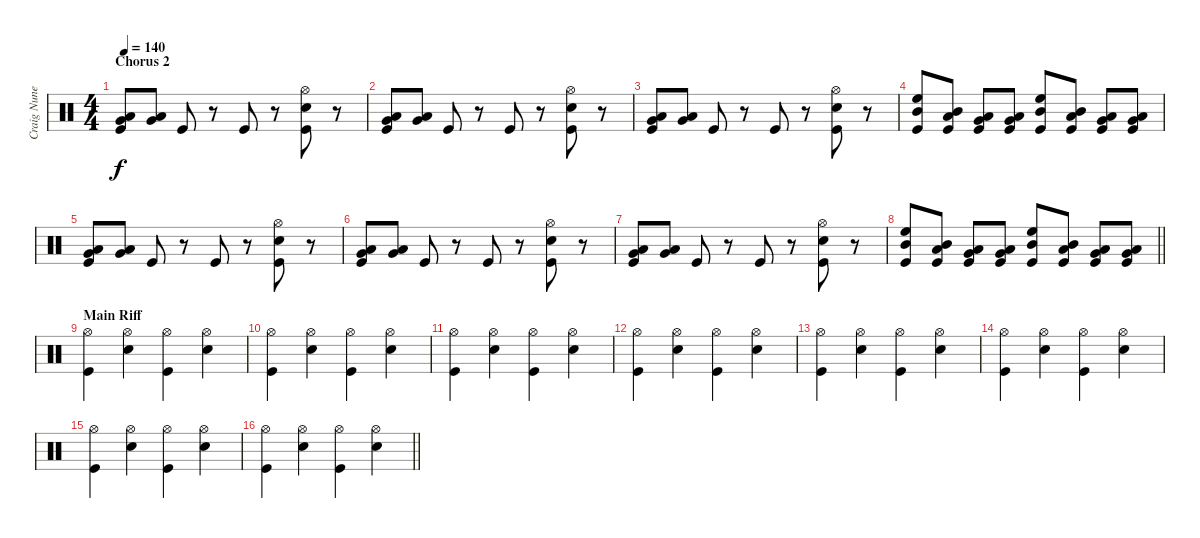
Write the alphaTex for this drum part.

\track ("Craig Nunenmacher" "Craig Nune") {instrument percussion}
\staff {score}
\articulation defaults
\ts (4 4)
\section ("" "Chorus 2")
\tempo 140
\clef neutral
\ks c
("Low Floor Tom (hit)" "Very Low Tom (hit)" "Kick (hit)").8{dy f} ("Low Floor Tom (hit)" "Very Low Tom (hit)").8 "Kick (hit)".8 r.8 "Kick (hit)".8 r.8 ("Snare (hit) 2" "Hi-Hat (open)" "Kick (hit)").8 r.8 |
("Low Floor Tom (hit)" "Very Low Tom (hit)" "Kick (hit)").8 ("Low Floor Tom (hit)" "Very Low Tom (hit)").8 "Kick (hit)".8 r.8 "Kick (hit)".8 r.8 ("Snare (hit) 2" "Hi-Hat (open)" "Kick (hit)").8 r.8 |
("Low Floor Tom (hit)" "Very Low Tom (hit)" "Kick (hit)").8 ("Low Floor Tom (hit)" "Very Low Tom (hit)").8 "Kick (hit)".8 r.8 "Kick (hit)".8 r.8 ("Snare (hit) 2" "Hi-Hat (open)" "Kick (hit)").8 r.8 |
("High Floor Tom (hit)" "Mid Tom (hit)" "Kick (hit)").8 ("Mid Tom (hit)" "Low Tom (hit)" "Kick (hit)").8 ("Low Tom (hit)" "Very Low Tom (hit)" "Kick (hit)").8 ("Very Low Tom (hit)" "Low Floor Tom (hit)" "Kick (hit)").8 ("High Floor Tom (hit)" "Mid Tom (hit)" "Kick (hit)").8 ("Mid Tom (hit)" "Low Tom (hit)" "Kick (hit)").8 ("Low Tom (hit)" "Very Low Tom (hit)" "Kick (hit)").8 ("Very Low Tom (hit)" "Low Floor Tom (hit)" "Kick (hit)").8 |
("Low Floor Tom (hit)" "Very Low Tom (hit)" "Kick (hit)").8 ("Low Floor Tom (hit)" "Very Low Tom (hit)").8 "Kick (hit)".8 r.8 "Kick (hit)".8 r.8 ("Snare (hit) 2" "Hi-Hat (open)" "Kick (hit)").8 r.8 |
("Low Floor Tom (hit)" "Very Low Tom (hit)" "Kick (hit)").8 ("Low Floor Tom (hit)" "Very Low Tom (hit)").8 "Kick (hit)".8 r.8 "Kick (hit)".8 r.8 ("Snare (hit) 2" "Hi-Hat (open)" "Kick (hit)").8 r.8 |
("Low Floor Tom (hit)" "Very Low Tom (hit)" "Kick (hit)").8 ("Low Floor Tom (hit)" "Very Low Tom (hit)").8 "Kick (hit)".8 r.8 "Kick (hit)".8 r.8 ("Snare (hit) 2" "Hi-Hat (open)" "Kick (hit)").8 r.8 |
\barLineRight lightlight
("High Floor Tom (hit)" "Mid Tom (hit)" "Kick (hit)").8 ("Mid Tom (hit)" "Low Tom (hit)" "Kick (hit)").8 ("Low Tom (hit)" "Very Low Tom (hit)" "Kick (hit)").8 ("Very Low Tom (hit)" "Low Floor Tom (hit)" "Kick (hit)").8 ("High Floor Tom (hit)" "Mid Tom (hit)" "Kick (hit)").8 ("Mid Tom (hit)" "Low Tom (hit)" "Kick (hit)").8 ("Low Tom (hit)" "Very Low Tom (hit)" "Kick (hit)").8 ("Very Low Tom (hit)" "Low Floor Tom (hit)" "Kick (hit)").8 |
\section ("" "Main Riff")
("Hi-Hat (open)" "Kick (hit)").4 ("Snare (hit) 2" "Hi-Hat (open)").4 ("Hi-Hat (open)" "Kick (hit)").4 ("Snare (hit) 2" "Hi-Hat (open)").4 |
("Hi-Hat (open)" "Kick (hit)").4 ("Snare (hit) 2" "Hi-Hat (open)").4 ("Hi-Hat (open)" "Kick (hit)").4 ("Snare (hit) 2" "Hi-Hat (open)").4 |
("Hi-Hat (open)" "Kick (hit)").4 ("Snare (hit) 2" "Hi-Hat (open)").4 ("Hi-Hat (open)" "Kick (hit)").4 ("Snare (hit) 2" "Hi-Hat (open)").4 |
("Hi-Hat (open)" "Kick (hit)").4 ("Snare (hit) 2" "Hi-Hat (open)").4 ("Hi-Hat (open)" "Kick (hit)").4 ("Snare (hit) 2" "Hi-Hat (open)").4 |
("Hi-Hat (open)" "Kick (hit)").4 ("Snare (hit) 2" "Hi-Hat (open)").4 ("Hi-Hat (open)" "Kick (hit)").4 ("Snare (hit) 2" "Hi-Hat (open)").4 |
("Hi-Hat (open)" "Kick (hit)").4 ("Snare (hit) 2" "Hi-Hat (open)").4 ("Hi-Hat (open)" "Kick (hit)").4 ("Snare (hit) 2" "Hi-Hat (open)").4 |
("Hi-Hat (open)" "Kick (hit)").4 ("Snare (hit) 2" "Hi-Hat (open)").4 ("Hi-Hat (open)" "Kick (hit)").4 ("Snare (hit) 2" "Hi-Hat (open)").4 |
\barLineRight lightlight
("Hi-Hat (open)" "Kick (hit)").4 ("Snare (hit) 2" "Hi-Hat (open)").4 ("Hi-Hat (open)" "Kick (hit)").4 ("Snare (hit) 2" "Hi-Hat (open)").4
